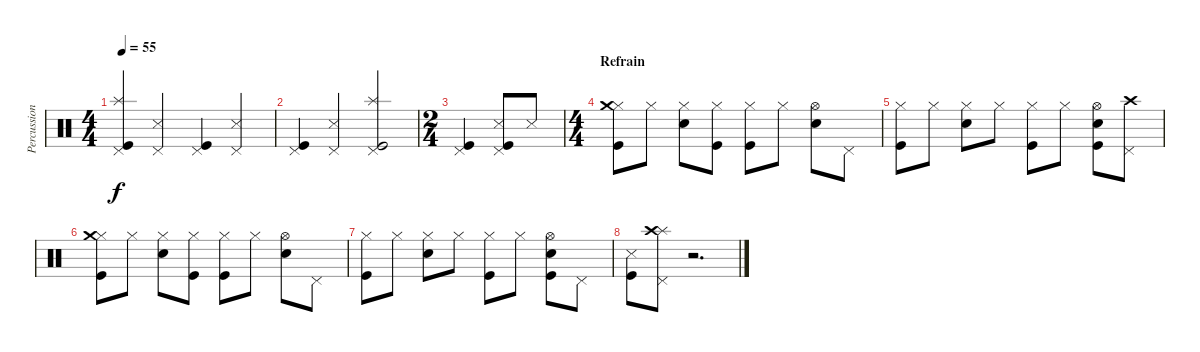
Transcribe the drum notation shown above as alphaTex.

\track ("Percussions" "Percussion") {instrument percussion}
\staff {score}
\articulation defaults
\ts (4 4)
\tempo 55
\clef neutral
\ks c
("Pedal Hi-Hat (hit)" "Splash (hit)" "Kick (hit)").4{dy f} ("Pedal Hi-Hat (hit)" "Snare (side stick) 3").4 ("Pedal Hi-Hat (hit)" "Kick (hit)").4 ("Pedal Hi-Hat (hit)" "Snare (side stick) 3").4 |
("Pedal Hi-Hat (hit)" "Kick (hit)").4 ("Pedal Hi-Hat (hit)" "Snare (side stick) 3").4 ("Pedal Hi-Hat (hit)" "Splash (hit)" "Kick (hit)").2 |
\ts (2 4)
("Pedal Hi-Hat (hit)" "Kick (hit)").4 ("Pedal Hi-Hat (hit)" "Snare (side stick) 3" "Kick (hit)").8 "Snare (side stick) 3".8 |
\ts (4 4)
\section ("" "Refrain")
("Hi-Hat (closed)" "Crash medium (hit)" "Kick (hit)").8 "Hi-Hat (closed)".8 ("Hi-Hat (closed)" "Snare (hit) 2").8 ("Hi-Hat (closed)" "Kick (hit)").8 ("Hi-Hat (closed)" "Kick (hit)").8 "Hi-Hat (closed)".8 ("Hi-Hat (open)" "Snare (hit) 2").8 "Pedal Hi-Hat (hit)".8 |
("Hi-Hat (closed)" "Kick (hit)").8 "Hi-Hat (closed)".8 ("Hi-Hat (closed)" "Snare (hit) 2").8 "Hi-Hat (closed)".8 ("Hi-Hat (closed)" "Kick (hit)").8 "Hi-Hat (closed)".8 ("Hi-Hat (open)" "Snare (hit) 2" "Kick (hit)").8 ("Pedal Hi-Hat (hit)" "Crash high (hit)").8 |
("Hi-Hat (closed)" "Crash medium (hit)" "Kick (hit)").8 "Hi-Hat (closed)".8 ("Hi-Hat (closed)" "Snare (hit) 2").8 ("Hi-Hat (closed)" "Kick (hit)").8 ("Hi-Hat (closed)" "Kick (hit)").8 "Hi-Hat (closed)".8 ("Hi-Hat (open)" "Snare (hit) 2").8 "Pedal Hi-Hat (hit)".8 |
("Hi-Hat (closed)" "Kick (hit)").8 "Hi-Hat (closed)".8 ("Hi-Hat (closed)" "Snare (hit) 2").8 "Hi-Hat (closed)".8 ("Hi-Hat (closed)" "Kick (hit)").8 "Hi-Hat (closed)".8 ("Hi-Hat (open)" "Snare (hit) 2" "Kick (hit)").8 "Pedal Hi-Hat (hit)".8 |
("Snare (side stick) 3" "Kick (hit)").8 ("Pedal Hi-Hat (hit)" "Splash (hit)" "Crash high (hit)").8 r.2{d}
